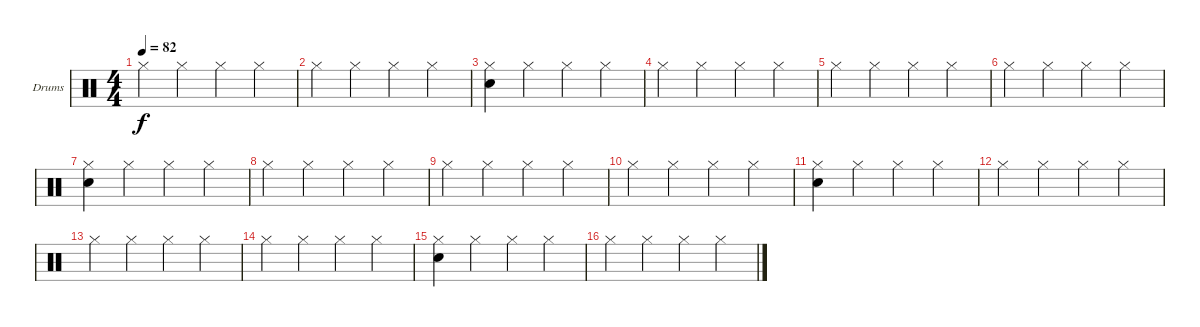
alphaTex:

\bracketExtendMode groupsimilarinstruments
\firstSystemTrackNameOrientation horizontal
\otherSystemsTrackNameOrientation horizontal
\track ("Matt Sorum - Drums" "Drums") {instrument percussion}
\staff {score}
\articulation defaults
\ts (4 4)
\tempo 82
\clef neutral
\ks aminor "Hi-Hat (closed)".4{dy f} "Hi-Hat (closed)".4 "Hi-Hat (closed)".4 "Hi-Hat (closed)".4
|
"Hi-Hat (closed)".4 "Hi-Hat (closed)".4 "Hi-Hat (closed)".4 "Hi-Hat (closed)".4 |
("Snare (hit) 2" "Hi-Hat (closed)").4 "Hi-Hat (closed)".4 "Hi-Hat (closed)".4 "Hi-Hat (closed)".4 |
"Hi-Hat (closed)".4 "Hi-Hat (closed)".4 "Hi-Hat (closed)".4 "Hi-Hat (closed)".4 |
"Hi-Hat (closed)".4 "Hi-Hat (closed)".4 "Hi-Hat (closed)".4 "Hi-Hat (closed)".4 |
"Hi-Hat (closed)".4 "Hi-Hat (closed)".4 "Hi-Hat (closed)".4 "Hi-Hat (closed)".4 |
("Snare (hit) 2" "Hi-Hat (closed)").4 "Hi-Hat (closed)".4 "Hi-Hat (closed)".4 "Hi-Hat (closed)".4 |
"Hi-Hat (closed)".4 "Hi-Hat (closed)".4 "Hi-Hat (closed)".4 "Hi-Hat (closed)".4 |
"Hi-Hat (closed)".4 "Hi-Hat (closed)".4 "Hi-Hat (closed)".4 "Hi-Hat (closed)".4 |
"Hi-Hat (closed)".4 "Hi-Hat (closed)".4 "Hi-Hat (closed)".4 "Hi-Hat (closed)".4 |
("Snare (hit) 2" "Hi-Hat (closed)").4 "Hi-Hat (closed)".4 "Hi-Hat (closed)".4 "Hi-Hat (closed)".4 |
"Hi-Hat (closed)".4 "Hi-Hat (closed)".4 "Hi-Hat (closed)".4 "Hi-Hat (closed)".4 |
"Hi-Hat (closed)".4 "Hi-Hat (closed)".4 "Hi-Hat (closed)".4 "Hi-Hat (closed)".4 |
"Hi-Hat (closed)".4 "Hi-Hat (closed)".4 "Hi-Hat (closed)".4 "Hi-Hat (closed)".4 |
("Snare (hit) 2" "Hi-Hat (closed)").4 "Hi-Hat (closed)".4 "Hi-Hat (closed)".4 "Hi-Hat (closed)".4 |
"Hi-Hat (closed)".4 "Hi-Hat (closed)".4 "Hi-Hat (closed)".4 "Hi-Hat (closed)".4
